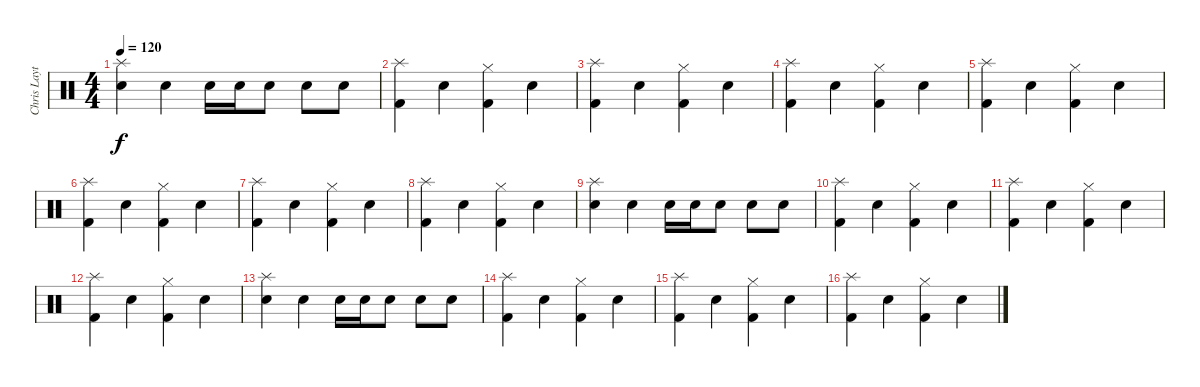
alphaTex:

\track ("Chris Layton" "Chris Layt") {instrument percussion}
\staff {score}
\articulation defaults
\ts (4 4)
\tempo 120
\clef neutral
\ks c
("Snare (hit) 2" "Splash (hit)").4{dy f} "Snare (hit) 2".4 "Snare (hit) 2".16 "Snare (hit) 2".16 "Snare (hit) 2".8 "Snare (hit) 2".8 "Snare (hit) 2".8 |
("Kick (hit) 2" "Splash (hit)").4 "Snare (hit) 2".4 ("Kick (hit) 2" "Hi-Hat (closed)").4 "Snare (hit) 2".4 |
("Kick (hit) 2" "Splash (hit)").4 "Snare (hit) 2".4 ("Kick (hit) 2" "Hi-Hat (closed)").4 "Snare (hit) 2".4 |
("Kick (hit) 2" "Splash (hit)").4 "Snare (hit) 2".4 ("Kick (hit) 2" "Hi-Hat (closed)").4 "Snare (hit) 2".4 |
("Kick (hit) 2" "Splash (hit)").4 "Snare (hit) 2".4 ("Kick (hit) 2" "Hi-Hat (closed)").4 "Snare (hit) 2".4 |
("Kick (hit) 2" "Splash (hit)").4 "Snare (hit) 2".4 ("Kick (hit) 2" "Hi-Hat (closed)").4 "Snare (hit) 2".4 |
("Kick (hit) 2" "Splash (hit)").4 "Snare (hit) 2".4 ("Kick (hit) 2" "Hi-Hat (closed)").4 "Snare (hit) 2".4 |
("Kick (hit) 2" "Splash (hit)").4 "Snare (hit) 2".4 ("Kick (hit) 2" "Hi-Hat (closed)").4 "Snare (hit) 2".4 |
("Snare (hit) 2" "Splash (hit)").4 "Snare (hit) 2".4 "Snare (hit) 2".16 "Snare (hit) 2".16 "Snare (hit) 2".8 "Snare (hit) 2".8 "Snare (hit) 2".8 |
("Kick (hit) 2" "Splash (hit)").4 "Snare (hit) 2".4 ("Kick (hit) 2" "Hi-Hat (closed)").4 "Snare (hit) 2".4 |
("Kick (hit) 2" "Splash (hit)").4 "Snare (hit) 2".4 ("Kick (hit) 2" "Hi-Hat (closed)").4 "Snare (hit) 2".4 |
("Kick (hit) 2" "Splash (hit)").4 "Snare (hit) 2".4 ("Kick (hit) 2" "Hi-Hat (closed)").4 "Snare (hit) 2".4 |
("Snare (hit) 2" "Splash (hit)").4 "Snare (hit) 2".4 "Snare (hit) 2".16 "Snare (hit) 2".16 "Snare (hit) 2".8 "Snare (hit) 2".8 "Snare (hit) 2".8 |
("Kick (hit) 2" "Splash (hit)").4 "Snare (hit) 2".4 ("Kick (hit) 2" "Hi-Hat (closed)").4 "Snare (hit) 2".4 |
("Kick (hit) 2" "Splash (hit)").4 "Snare (hit) 2".4 ("Kick (hit) 2" "Hi-Hat (closed)").4 "Snare (hit) 2".4 |
("Kick (hit) 2" "Splash (hit)").4 "Snare (hit) 2".4 ("Kick (hit) 2" "Hi-Hat (closed)").4 "Snare (hit) 2".4
